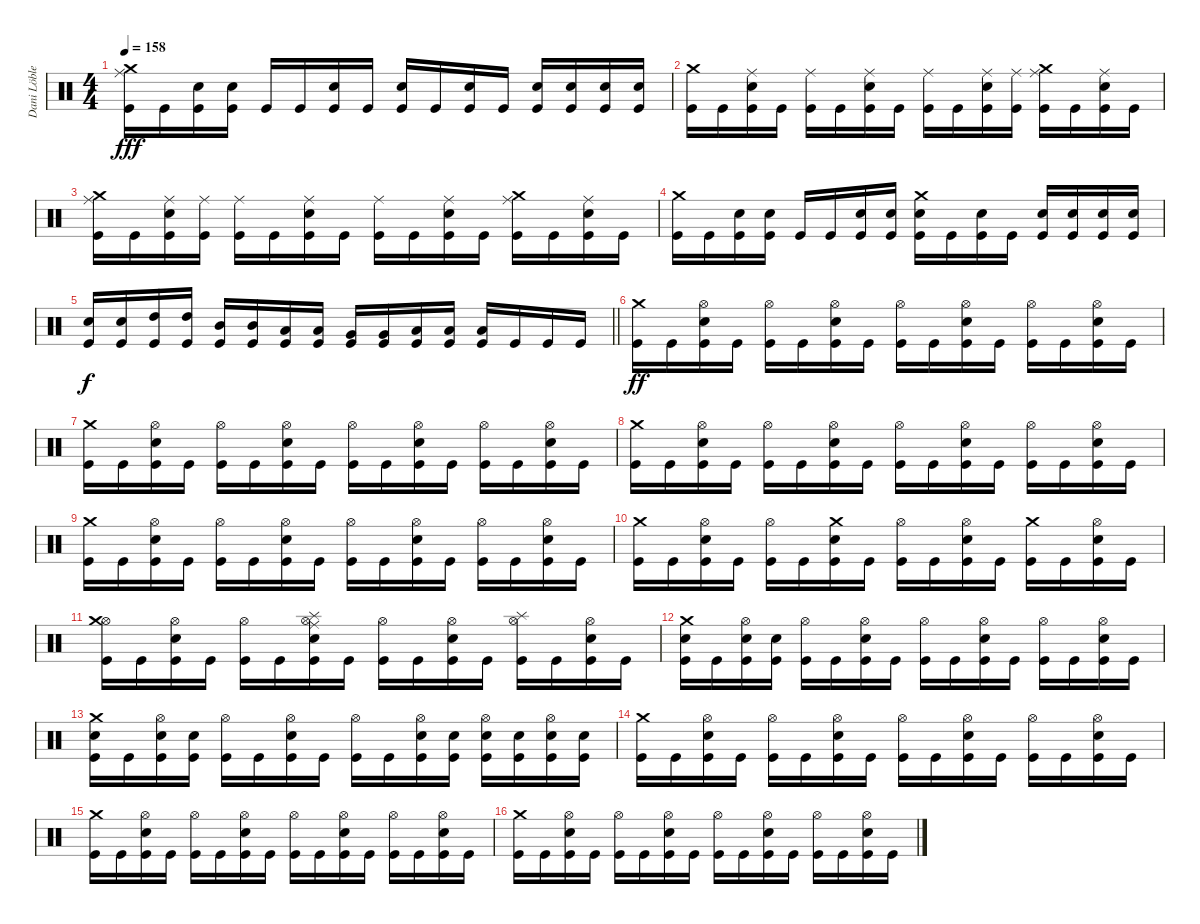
\track ("Dani Löble" "Dani Löble") {instrument percussion}
\staff {score}
\articulation defaults
\ts (4 4)
\tempo 158
\clef neutral
\ks c
("Crash medium (hit)" "Ride (middle)" "Kick (hit)").16{dy fff} "Kick (hit)".16 ("Electric Snare (hit)" "Kick (hit)").16 ("Electric Snare (hit)" "Kick (hit)").16 "Kick (hit)".16 "Kick (hit)".16 ("Electric Snare (hit)" "Kick (hit)").16 "Kick (hit)".16 ("Electric Snare (hit)" "Kick (hit)").16 "Kick (hit)".16 ("Electric Snare (hit)" "Kick (hit)").16 "Kick (hit)".16 ("Electric Snare (hit)" "Kick (hit)").16 ("Electric Snare (hit)" "Kick (hit)").16 ("Electric Snare (hit)" "Kick (hit)").16 ("Electric Snare (hit)" "Kick (hit)").16 |
("Crash medium (hit)" "Kick (hit)").16 "Kick (hit)".16 ("Ride (middle)" "Electric Snare (hit)" "Kick (hit)").16 "Kick (hit)".16 ("Ride (middle)" "Kick (hit)").16 "Kick (hit)".16 ("Ride (middle)" "Electric Snare (hit)" "Kick (hit)").16 "Kick (hit)".16 ("Ride (middle)" "Kick (hit)").16 "Kick (hit)".16 ("Ride (middle)" "Electric Snare (hit)" "Kick (hit)").16 ("Ride (middle)" "Kick (hit)").16 ("Ride (middle)" "Crash medium (hit)" "Kick (hit)").16 "Kick (hit)".16 ("Ride (middle)" "Electric Snare (hit)" "Kick (hit)").16 "Kick (hit)".16 |
("Crash medium (hit)" "Ride (middle)" "Kick (hit)").16 "Kick (hit)".16 ("Ride (middle)" "Electric Snare (hit)" "Kick (hit)").16 ("Ride (middle)" "Kick (hit)").16 ("Ride (middle)" "Kick (hit)").16 "Kick (hit)".16 ("Ride (middle)" "Electric Snare (hit)" "Kick (hit)").16 "Kick (hit)".16 ("Ride (middle)" "Kick (hit)").16 "Kick (hit)".16 ("Ride (middle)" "Electric Snare (hit)" "Kick (hit)").16 "Kick (hit)".16 ("Ride (middle)" "Crash medium (hit)" "Kick (hit)").16 "Kick (hit)".16 ("Ride (middle)" "Electric Snare (hit)" "Kick (hit)").16 "Kick (hit)".16 |
("Crash medium (hit)" "Kick (hit)").16 "Kick (hit)".16 ("Electric Snare (hit)" "Kick (hit)").16 ("Electric Snare (hit)" "Kick (hit)").16 "Kick (hit)".16 "Kick (hit)".16 ("Electric Snare (hit)" "Kick (hit)").16 ("Electric Snare (hit)" "Kick (hit)").16 ("Crash medium (hit)" "Electric Snare (hit)" "Kick (hit)").16 "Kick (hit)".16 ("Electric Snare (hit)" "Kick (hit)").16 "Kick (hit)".16 ("Electric Snare (hit)" "Kick (hit)").16 ("Electric Snare (hit)" "Kick (hit)").16 ("Electric Snare (hit)" "Kick (hit)").16 ("Electric Snare (hit)" "Kick (hit)").16 |
\barLineRight lightlight
("Electric Snare (hit)" "Kick (hit)").16{dy f} ("Electric Snare (hit)" "Kick (hit)").16 ("High Tom (hit)" "Kick (hit)").16 ("High Tom (hit)" "Kick (hit)").16 ("Mid Tom (hit)" "Kick (hit)").16 ("Mid Tom (hit)" "Kick (hit)").16 ("Low Tom (hit)" "Kick (hit)").16 ("Low Tom (hit)" "Kick (hit)").16 ("Very Low Tom (hit)" "Kick (hit)").16 ("Very Low Tom (hit)" "Kick (hit)").16 ("Low Floor Tom (hit)" "Kick (hit)").16 ("Low Floor Tom (hit)" "Kick (hit)").16 ("Low Floor Tom (hit)" "Kick (hit)").16 "Kick (hit)".16 "Kick (hit)".16 "Kick (hit)".16 |
\section ("" "")
("Crash medium (hit)" "Kick (hit)").16{dy ff} "Kick (hit)".16 ("Hi-Hat (open)" "Electric Snare (hit)" "Kick (hit)").16 "Kick (hit)".16 ("Hi-Hat (open)" "Kick (hit)").16 "Kick (hit)".16 ("Hi-Hat (open)" "Electric Snare (hit)" "Kick (hit)").16 "Kick (hit)".16 ("Hi-Hat (open)" "Kick (hit)").16 "Kick (hit)".16 ("Hi-Hat (open)" "Electric Snare (hit)" "Kick (hit)").16 "Kick (hit)".16 ("Hi-Hat (open)" "Kick (hit)").16 "Kick (hit)".16 ("Hi-Hat (open)" "Electric Snare (hit)" "Kick (hit)").16 "Kick (hit)".16 |
("Crash medium (hit)" "Kick (hit)").16 "Kick (hit)".16 ("Hi-Hat (open)" "Electric Snare (hit)" "Kick (hit)").16 "Kick (hit)".16 ("Hi-Hat (open)" "Kick (hit)").16 "Kick (hit)".16 ("Hi-Hat (open)" "Electric Snare (hit)" "Kick (hit)").16 "Kick (hit)".16 ("Hi-Hat (open)" "Kick (hit)").16 "Kick (hit)".16 ("Hi-Hat (open)" "Electric Snare (hit)" "Kick (hit)").16 "Kick (hit)".16 ("Hi-Hat (open)" "Kick (hit)").16 "Kick (hit)".16 ("Hi-Hat (open)" "Electric Snare (hit)" "Kick (hit)").16 "Kick (hit)".16 |
("Crash medium (hit)" "Kick (hit)").16 "Kick (hit)".16 ("Hi-Hat (open)" "Electric Snare (hit)" "Kick (hit)").16 "Kick (hit)".16 ("Hi-Hat (open)" "Kick (hit)").16 "Kick (hit)".16 ("Hi-Hat (open)" "Electric Snare (hit)" "Kick (hit)").16 "Kick (hit)".16 ("Hi-Hat (open)" "Kick (hit)").16 "Kick (hit)".16 ("Hi-Hat (open)" "Electric Snare (hit)" "Kick (hit)").16 "Kick (hit)".16 ("Hi-Hat (open)" "Kick (hit)").16 "Kick (hit)".16 ("Hi-Hat (open)" "Electric Snare (hit)" "Kick (hit)").16 "Kick (hit)".16 |
("Crash medium (hit)" "Kick (hit)").16 "Kick (hit)".16 ("Hi-Hat (open)" "Electric Snare (hit)" "Kick (hit)").16 "Kick (hit)".16 ("Hi-Hat (open)" "Kick (hit)").16 "Kick (hit)".16 ("Hi-Hat (open)" "Electric Snare (hit)" "Kick (hit)").16 "Kick (hit)".16 ("Hi-Hat (open)" "Kick (hit)").16 "Kick (hit)".16 ("Hi-Hat (open)" "Electric Snare (hit)" "Kick (hit)").16 "Kick (hit)".16 ("Hi-Hat (open)" "Kick (hit)").16 "Kick (hit)".16 ("Hi-Hat (open)" "Electric Snare (hit)" "Kick (hit)").16 "Kick (hit)".16 |
("Crash medium (hit)" "Kick (hit)").16 "Kick (hit)".16 ("Hi-Hat (open)" "Electric Snare (hit)" "Kick (hit)").16 "Kick (hit)".16 ("Hi-Hat (open)" "Kick (hit)").16 "Kick (hit)".16 ("Crash medium (hit)" "Electric Snare (hit)" "Kick (hit)").16 "Kick (hit)".16 ("Hi-Hat (open)" "Kick (hit)").16 "Kick (hit)".16 ("Hi-Hat (open)" "Electric Snare (hit)" "Kick (hit)").16 "Kick (hit)".16 ("Crash medium (hit)" "Kick (hit)").16 "Kick (hit)".16 ("Hi-Hat (open)" "Electric Snare (hit)" "Kick (hit)").16 "Kick (hit)".16 |
("Hi-Hat (open)" "Crash medium (hit)" "Kick (hit)").16 "Kick (hit)".16 ("Hi-Hat (open)" "Electric Snare (hit)" "Kick (hit)").16 "Kick (hit)".16 ("Hi-Hat (open)" "Kick (hit)").16 "Kick (hit)".16 ("Hi-Hat (open)" "Splash (hit)" "Ride (middle)" "Electric Snare (hit)" "Kick (hit)").16 "Kick (hit)".16 ("Hi-Hat (open)" "Kick (hit)").16 "Kick (hit)".16 ("Hi-Hat (open)" "Electric Snare (hit)" "Kick (hit)").16 "Kick (hit)".16 ("Hi-Hat (open)" "Splash (hit)" "Kick (hit)").16 "Kick (hit)".16 ("Hi-Hat (open)" "Electric Snare (hit)" "Kick (hit)").16 "Kick (hit)".16 |
("Crash medium (hit)" "Electric Snare (hit)" "Kick (hit)").16 "Kick (hit)".16 ("Hi-Hat (open)" "Electric Snare (hit)" "Kick (hit)").16 ("Electric Snare (hit)" "Kick (hit)").16 ("Hi-Hat (open)" "Kick (hit)").16 "Kick (hit)".16 ("Hi-Hat (open)" "Electric Snare (hit)" "Kick (hit)").16 "Kick (hit)".16 ("Hi-Hat (open)" "Kick (hit)").16 "Kick (hit)".16 ("Hi-Hat (open)" "Electric Snare (hit)" "Kick (hit)").16 "Kick (hit)".16 ("Hi-Hat (open)" "Kick (hit)").16 "Kick (hit)".16 ("Hi-Hat (open)" "Electric Snare (hit)" "Kick (hit)").16 "Kick (hit)".16 |
("Crash medium (hit)" "Electric Snare (hit)" "Kick (hit)").16 "Kick (hit)".16 ("Hi-Hat (open)" "Electric Snare (hit)" "Kick (hit)").16 ("Electric Snare (hit)" "Kick (hit)").16 ("Hi-Hat (open)" "Kick (hit)").16 "Kick (hit)".16 ("Hi-Hat (open)" "Electric Snare (hit)" "Kick (hit)").16 "Kick (hit)".16 ("Hi-Hat (open)" "Kick (hit)").16 "Kick (hit)".16 ("Hi-Hat (open)" "Electric Snare (hit)" "Kick (hit)").16 ("Electric Snare (hit)" "Kick (hit)").16 ("Hi-Hat (open)" "Electric Snare (hit)" "Kick (hit)").16 ("Electric Snare (hit)" "Kick (hit)").16 ("Hi-Hat (open)" "Electric Snare (hit)" "Kick (hit)").16 ("Electric Snare (hit)" "Kick (hit)").16 |
("Crash medium (hit)" "Kick (hit)").16 "Kick (hit)".16 ("Hi-Hat (open)" "Electric Snare (hit)" "Kick (hit)").16 "Kick (hit)".16 ("Hi-Hat (open)" "Kick (hit)").16 "Kick (hit)".16 ("Hi-Hat (open)" "Electric Snare (hit)" "Kick (hit)").16 "Kick (hit)".16 ("Hi-Hat (open)" "Kick (hit)").16 "Kick (hit)".16 ("Hi-Hat (open)" "Electric Snare (hit)" "Kick (hit)").16 "Kick (hit)".16 ("Hi-Hat (open)" "Kick (hit)").16 "Kick (hit)".16 ("Hi-Hat (open)" "Electric Snare (hit)" "Kick (hit)").16 "Kick (hit)".16 |
("Crash medium (hit)" "Kick (hit)").16 "Kick (hit)".16 ("Hi-Hat (open)" "Electric Snare (hit)" "Kick (hit)").16 "Kick (hit)".16 ("Hi-Hat (open)" "Kick (hit)").16 "Kick (hit)".16 ("Hi-Hat (open)" "Electric Snare (hit)" "Kick (hit)").16 "Kick (hit)".16 ("Hi-Hat (open)" "Kick (hit)").16 "Kick (hit)".16 ("Hi-Hat (open)" "Electric Snare (hit)" "Kick (hit)").16 "Kick (hit)".16 ("Hi-Hat (open)" "Kick (hit)").16 "Kick (hit)".16 ("Hi-Hat (open)" "Electric Snare (hit)" "Kick (hit)").16 "Kick (hit)".16 |
("Crash medium (hit)" "Kick (hit)").16 "Kick (hit)".16 ("Hi-Hat (open)" "Electric Snare (hit)" "Kick (hit)").16 "Kick (hit)".16 ("Hi-Hat (open)" "Kick (hit)").16 "Kick (hit)".16 ("Hi-Hat (open)" "Electric Snare (hit)" "Kick (hit)").16 "Kick (hit)".16 ("Hi-Hat (open)" "Kick (hit)").16 "Kick (hit)".16 ("Hi-Hat (open)" "Electric Snare (hit)" "Kick (hit)").16 "Kick (hit)".16 ("Hi-Hat (open)" "Kick (hit)").16 "Kick (hit)".16 ("Hi-Hat (open)" "Electric Snare (hit)" "Kick (hit)").16 "Kick (hit)".16
